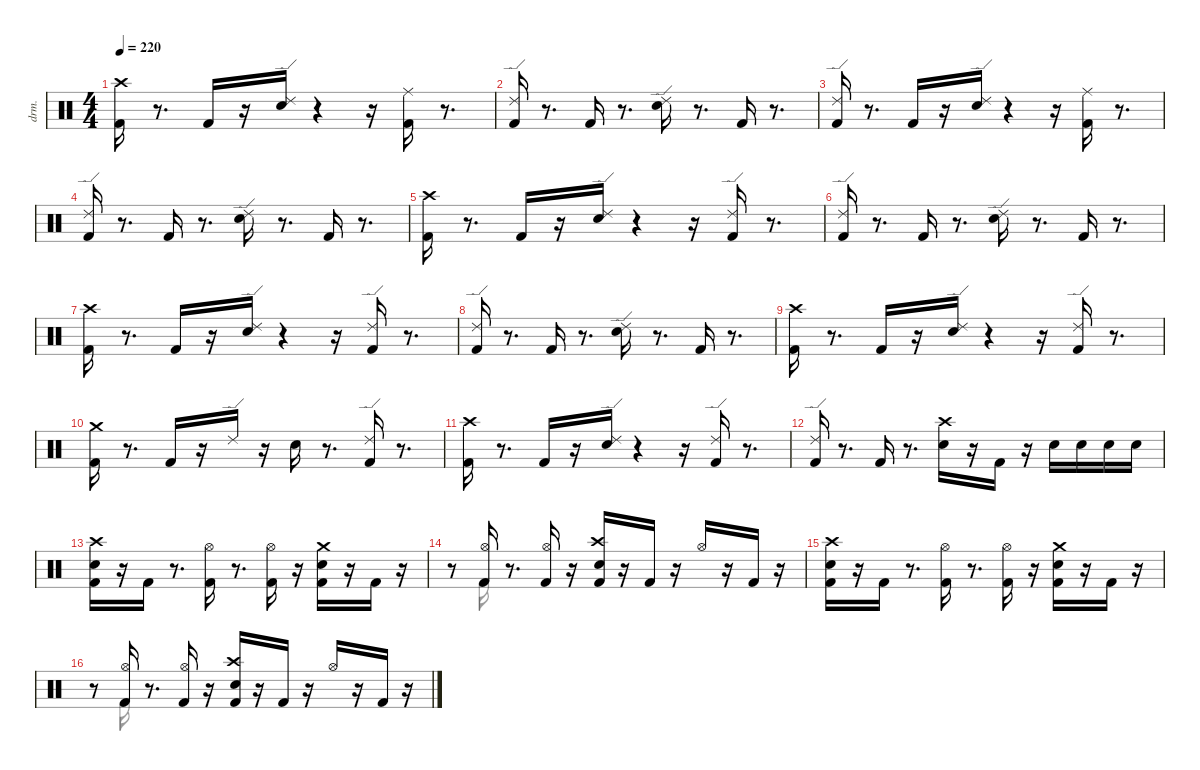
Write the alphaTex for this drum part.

\defaultSystemsLayout 4
\hideDynamics
\bracketExtendMode nobrackets
\otherSystemsTrackNameOrientation horizontal
\track ("EZdrummer 3" "drm.") {instrument percussion}
\staff {score}
\articulation defaults
\voice
\ts (4 4)
\tempo 220
\clef neutral
\ks c
("Kick (hit) 2" "Crash high (hit)"{acc #}).16{dy fff beam Down} r.8{d beam Down} "Kick (hit) 2".16{dy ff beam Up} r.16{beam Up} ("Snare (hit) 2" "Ride (edge) 2").16{beam Down} r.4{beam Down} r.16{beam Down} ("Kick (hit) 2" "Ride (middle)"{acc #}).16{dy f beam Down} r.8{d beam Down} |
("Kick (hit) 2" "Ride (edge) 2").16{dy ff beam Up} r.8{d beam Up} "Kick (hit) 2".16{dy f beam Up} r.8{d beam Up} ("Snare (hit) 2" "Ride (edge) 2").16{dy ff beam Down} r.8{d beam Down} "Kick (hit) 2".16{dy mf beam Up} r.8{d beam Up} |
("Kick (hit) 2" "Ride (edge) 2").16{dy fff beam Up} r.8{d beam Up} "Kick (hit) 2".16{dy ff beam Up} r.16{beam Up} ("Snare (hit) 2" "Ride (edge) 2").16{beam Down} r.4{beam Down} r.16{beam Down} ("Kick (hit) 2" "Ride (middle)"{acc #}).16{dy f beam Down} r.8{d beam Down} |
("Kick (hit) 2" "Ride (edge) 2").16{dy ff beam Up} r.8{d beam Up} "Kick (hit) 2".16{dy f beam Up} r.8{d beam Up} ("Snare (hit) 2" "Ride (edge) 2").16{dy ff beam Down} r.8{d beam Down} "Kick (hit) 2".16{dy mf beam Up} r.8{d beam Up} |
("Kick (hit) 2" "Crash high (hit)"{acc #}).16{dy fff beam Down} r.8{d beam Down} "Kick (hit) 2".16{dy ff beam Up} r.16{beam Up} ("Snare (hit) 2" "Ride (edge) 2").16{beam Down} r.4{beam Down} r.16{beam Down} ("Kick (hit) 2" "Ride (edge) 2").16{dy f beam Up} r.8{d beam Up} |
("Kick (hit) 2" "Ride (edge) 2").16{dy ff beam Up} r.8{d beam Up} "Kick (hit) 2".16{dy f beam Up} r.8{d beam Up} ("Snare (hit) 2" "Ride (edge) 2").16{dy ff beam Down} r.8{d beam Down} "Kick (hit) 2".16{dy mf beam Up} r.8{d beam Up} |
("Kick (hit) 2" "Crash high (hit)"{acc #}).16{dy fff beam Down} r.8{d beam Down} "Kick (hit) 2".16{dy ff beam Up} r.16{beam Up} ("Snare (hit) 2" "Ride (edge) 2").16{beam Down} r.4{beam Down} r.16{beam Down} ("Kick (hit) 2" "Ride (edge) 2").16{dy f beam Up} r.8{d beam Up} |
("Kick (hit) 2" "Ride (edge) 2").16{dy ff beam Up} r.8{d beam Up} "Kick (hit) 2".16{dy f beam Up} r.8{d beam Up} ("Snare (hit) 2" "Ride (edge) 2").16{dy ff beam Down} r.8{d beam Down} "Kick (hit) 2".16{dy mf beam Up} r.8{d beam Up} |
("Kick (hit) 2" "Crash high (hit)"{acc #}).16{dy fff beam Down} r.8{d beam Down} "Kick (hit) 2".16{dy ff beam Up} r.16{beam Up} ("Snare (hit) 2" "Ride (edge) 2").16{beam Down} r.4{beam Down} r.16{beam Down} ("Kick (hit) 2" "Ride (edge) 2").16{dy f beam Up} r.8{d beam Up} |
("Kick (hit) 2" "Crash medium (hit)").16{dy fff beam Down} r.8{d beam Down} "Kick (hit) 2".16{dy f beam Up} r.16{beam Up} "Ride (edge) 2".16{beam Down} r.16{beam Down} "Snare (hit) 2".16{dy ff beam Down} r.8{d beam Down} ("Kick (hit) 2" "Ride (edge) 2").16{dy mf beam Up} r.8{d beam Up} |
("Kick (hit) 2" "Crash high (hit)"{acc #}).16{dy fff beam Down} r.8{d beam Down} "Kick (hit) 2".16{dy ff beam Up} r.16{beam Up} ("Snare (hit) 2" "Ride (edge) 2").16{beam Down} r.4{beam Down} r.16{beam Down} ("Kick (hit) 2" "Ride (edge) 2").16{dy f beam Up} r.8{d beam Up} |
("Kick (hit) 2" "Ride (edge) 2").16{dy fff beam Up} r.8{d beam Up} "Kick (hit) 2".16{dy f beam Up} r.8{d beam Up} ("Snare (hit) 2" "Crash high (hit)"{acc #}).16{dy fff beam Down} r.16{beam Down} "Kick (hit) 2".16{dy ff beam Up} r.16{beam Up} "Snare (hit) 2".16{dy mp beam Down} "Snare (hit) 2".16{dy pp beam Down} "Snare (hit) 2".16{dy ff beam Down} "Snare (hit) 2".16{dy fff beam Down} |
("Kick (hit) 2" "Snare (hit) 2" "Crash high (hit)"{acc #}).16{dy ff beam Down} r.16{beam Down} "Kick (hit) 2".16{dy f beam Up} r.8{d beam Up} ("Kick (hit) 2" "Hi-Hat (open)"{acc #}).16{dy mf beam Down} r.8{d beam Down} ("Kick (hit) 2" "Hi-Hat (open)"{acc #}).16{dy f beam Down} r.16{beam Down} ("Kick (hit) 2" "Snare (hit) 2" "Crash medium (hit)").16{dy fff beam Down} r.16{beam Down} "Kick (hit) 2".16{dy f beam Up} r.16{beam Up} |
r.8{beam Up} ("Kick (hit) 2" "Hi-Hat (open)"{acc #}).16{dy mf beam Up} r.8{d beam Up} ("Kick (hit) 2" "Hi-Hat (open)"{acc #}).16{dy f beam Up} r.16{beam Up} ("Kick (hit) 2" "Snare (hit) 2" "Crash high (hit)"{acc #}).16{dy fff beam Up} r.16{beam Up} "Kick (hit) 2".16{dy f beam Up} r.16{beam Up} "Hi-Hat (open)"{acc #}.16{dy ff beam Up} r.16{beam Up} "Kick (hit) 2".16{dy mf beam Up} r.16{beam Up} |
("Kick (hit) 2" "Snare (hit) 2" "Crash high (hit)"{acc #}).16{dy ff beam Down} r.16{beam Down} "Kick (hit) 2".16{dy f beam Up} r.8{d beam Up} ("Kick (hit) 2" "Hi-Hat (open)"{acc #}).16{dy ff beam Down} r.8{d beam Down} ("Kick (hit) 2" "Hi-Hat (open)"{acc #}).16{beam Down} r.16{beam Down} ("Kick (hit) 2" "Snare (hit) 2" "Crash medium (hit)").16{dy fff beam Down} r.16{beam Down} "Kick (hit) 2".16{dy f beam Up} r.16{beam Up} |
r.8{beam Up} ("Kick (hit) 2" "Hi-Hat (open)"{acc #}).16{dy mf beam Up} r.8{d beam Up} ("Kick (hit) 2" "Hi-Hat (open)"{acc #}).16{dy f beam Up} r.16{beam Up} ("Crash high (hit)"{acc #} "Kick (hit) 2" "Snare (hit) 2").16{dy ff beam Up} r.16{beam Up} "Kick (hit) 2".16{dy f beam Up} r.16{beam Up} "Hi-Hat (open)"{acc #}.16{dy ff beam Up} r.16{beam Up} "Kick (hit) 2".16{dy mf beam Up} r.16{beam Up}
\voice
\clef neutral
\ottava regular
\simile none
\ks c
|
|
|
|
|
|
|
|
|
|
|
|
|
r.8{beam Down} "Kick (hit) 2".16{beam Down} |
|
r.8{beam Down} "Kick (hit) 2".16{beam Down}
